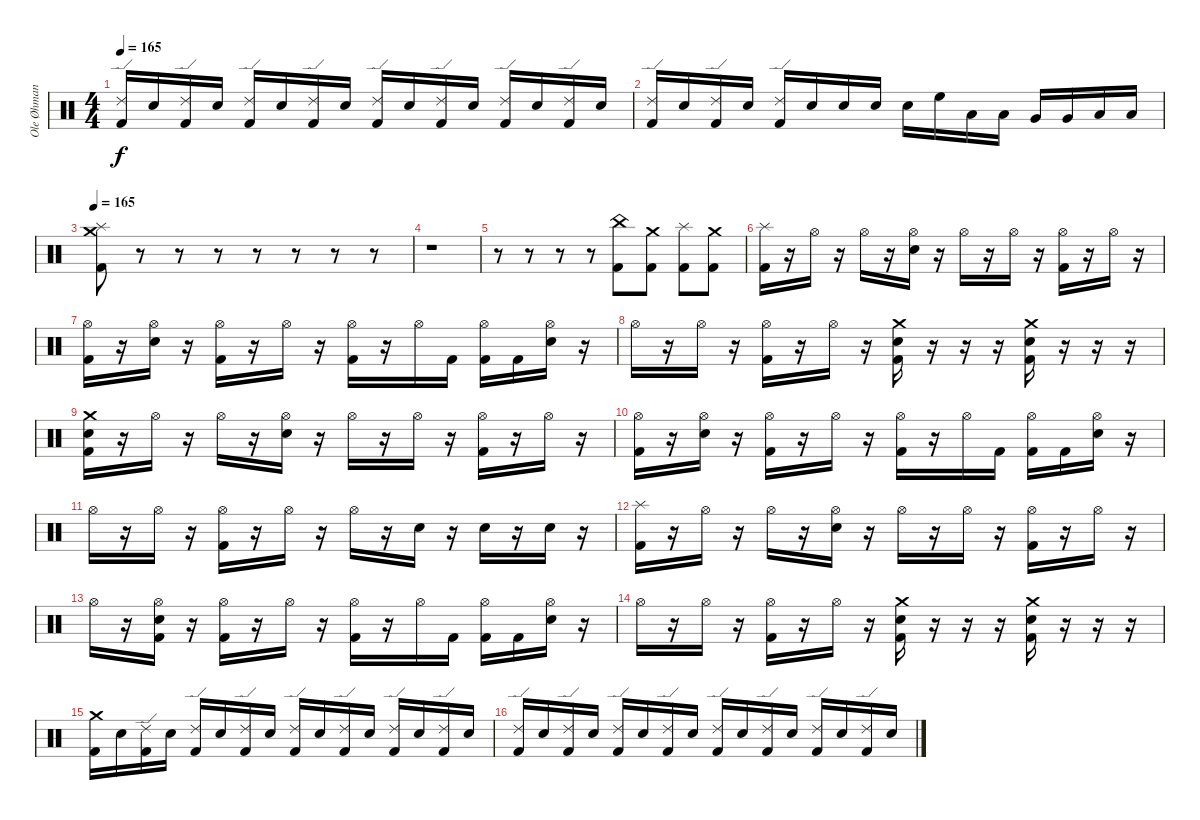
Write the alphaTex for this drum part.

\track ("Ole Øhman (Trommur)" "Ole Øhman ") {instrument percussion}
\staff {score}
\articulation defaults
\ts (4 4)
\tempo 165
\clef neutral
\ks c
("Ride (edge) 2" "Kick (hit) 2").16{dy f} "Electric Snare (hit)".16 ("Ride (edge) 2" "Kick (hit) 2").16 "Electric Snare (hit)".16 ("Ride (edge) 2" "Kick (hit) 2").16 "Electric Snare (hit)".16 ("Ride (edge) 2" "Kick (hit) 2").16 "Electric Snare (hit)".16 ("Ride (edge) 2" "Kick (hit) 2").16 "Electric Snare (hit)".16 ("Ride (edge) 2" "Kick (hit) 2").16 "Electric Snare (hit)".16 ("Ride (edge) 2" "Kick (hit) 2").16 "Electric Snare (hit)".16 ("Ride (edge) 2" "Kick (hit) 2").16 "Electric Snare (hit)".16 |
("Ride (edge) 2" "Kick (hit) 2").16 "Electric Snare (hit)".16 ("Ride (edge) 2" "Kick (hit) 2").16 "Electric Snare (hit)".16 ("Ride (edge) 2" "Kick (hit) 2").16 "Electric Snare (hit)".16 "Electric Snare (hit)".16 "Electric Snare (hit)".16 "Electric Snare (hit)".16 "High Floor Tom (hit)".16 "Low Tom (hit)".16 "Low Tom (hit)".16 "Very Low Tom (hit)".16 "Very Low Tom (hit)".16 "Low Floor Tom (hit)".16 "Low Floor Tom (hit)".16 |
\tempo 165
("Crash medium (hit)" "Splash (hit)" "Kick (hit) 2").8 r.8 r.8 r.8 r.8 r.8 r.8 r.8 |
r.1 |
r.8 r.8 r.8 r.8 ("China (hit)" "Kick (hit) 2").8 ("Crash medium (hit)" "Kick (hit) 2").8 ("Splash (hit)" "Kick (hit) 2").8 ("Crash medium (hit)" "Kick (hit) 2").8 |
("Splash (hit)" "Kick (hit) 2").16 r.16 "Hi-Hat (open)".16 r.16 "Hi-Hat (open)".16 r.16 ("Hi-Hat (open)" "Electric Snare (hit)").16 r.16 "Hi-Hat (open)".16 r.16 "Hi-Hat (open)".16 r.16 ("Hi-Hat (open)" "Kick (hit) 2").16 r.16 "Hi-Hat (open)".16 r.16 |
("Hi-Hat (open)" "Kick (hit) 2").16 r.16 ("Hi-Hat (open)" "Electric Snare (hit)").16 r.16 ("Hi-Hat (open)" "Kick (hit) 2").16 r.16 "Hi-Hat (open)".16 r.16 ("Hi-Hat (open)" "Kick (hit) 2").16 r.16 "Hi-Hat (open)".16 "Kick (hit) 2".16 ("Hi-Hat (open)" "Kick (hit) 2").16 "Kick (hit) 2".16 ("Hi-Hat (open)" "Electric Snare (hit)").16 r.16 |
"Hi-Hat (open)".16 r.16 "Hi-Hat (open)".16 r.16 ("Hi-Hat (open)" "Kick (hit) 2").16 r.16 "Hi-Hat (open)".16 r.16 ("Crash medium (hit)" "Electric Snare (hit)" "Kick (hit) 2").16 r.16 r.16 r.16 ("Crash medium (hit)" "Electric Snare (hit)" "Kick (hit) 2").16 r.16 r.16 r.16 |
("Crash medium (hit)" "Electric Snare (hit)" "Kick (hit) 2").16 r.16 "Hi-Hat (open)".16 r.16 "Hi-Hat (open)".16 r.16 ("Hi-Hat (open)" "Electric Snare (hit)").16 r.16 "Hi-Hat (open)".16 r.16 "Hi-Hat (open)".16 r.16 ("Hi-Hat (open)" "Kick (hit) 2").16 r.16 "Hi-Hat (open)".16 r.16 |
("Hi-Hat (open)" "Kick (hit) 2").16 r.16 ("Hi-Hat (open)" "Electric Snare (hit)").16 r.16 ("Hi-Hat (open)" "Kick (hit) 2").16 r.16 "Hi-Hat (open)".16 r.16 ("Hi-Hat (open)" "Kick (hit) 2").16 r.16 "Hi-Hat (open)".16 "Kick (hit) 2".16 ("Hi-Hat (open)" "Kick (hit) 2").16 "Kick (hit) 2".16 ("Hi-Hat (open)" "Electric Snare (hit)").16 r.16 |
"Hi-Hat (open)".16 r.16 "Hi-Hat (open)".16 r.16 ("Hi-Hat (open)" "Kick (hit) 2").16 r.16 "Hi-Hat (open)".16 r.16 "Hi-Hat (open)".16 r.16 "Electric Snare (hit)".16 r.16 "Electric Snare (hit)".16 r.16 "Electric Snare (hit)".16 r.16 |
("Splash (hit)" "Kick (hit) 2").16 r.16 "Hi-Hat (open)".16 r.16 "Hi-Hat (open)".16 r.16 ("Hi-Hat (open)" "Electric Snare (hit)").16 r.16 "Hi-Hat (open)".16 r.16 "Hi-Hat (open)".16 r.16 ("Hi-Hat (open)" "Kick (hit) 2").16 r.16 "Hi-Hat (open)".16 r.16 |
"Hi-Hat (open)".16 r.16 ("Hi-Hat (open)" "Electric Snare (hit)" "Kick (hit) 2").16 r.16 ("Hi-Hat (open)" "Kick (hit) 2").16 r.16 "Hi-Hat (open)".16 r.16 ("Hi-Hat (open)" "Kick (hit) 2").16 r.16 "Hi-Hat (open)".16 "Kick (hit) 2".16 ("Hi-Hat (open)" "Kick (hit) 2").16 "Kick (hit) 2".16 ("Hi-Hat (open)" "Electric Snare (hit)").16 r.16 |
"Hi-Hat (open)".16 r.16 "Hi-Hat (open)".16 r.16 ("Hi-Hat (open)" "Kick (hit) 2").16 r.16 "Hi-Hat (open)".16 r.16 ("Crash medium (hit)" "Electric Snare (hit)" "Kick (hit) 2").16 r.16 r.16 r.16 ("Crash medium (hit)" "Electric Snare (hit)" "Kick (hit) 2").16 r.16 r.16 r.16 |
("Crash medium (hit)" "Kick (hit) 2").16 "Electric Snare (hit)".16 ("Ride (edge) 2" "Kick (hit) 2").16 "Electric Snare (hit)".16 ("Ride (edge) 2" "Kick (hit) 2").16 "Electric Snare (hit)".16 ("Ride (edge) 2" "Kick (hit) 2").16 "Electric Snare (hit)".16 ("Ride (edge) 2" "Kick (hit) 2").16 "Electric Snare (hit)".16 ("Ride (edge) 2" "Kick (hit) 2").16 "Electric Snare (hit)".16 ("Ride (edge) 2" "Kick (hit) 2").16 "Electric Snare (hit)".16 ("Ride (edge) 2" "Kick (hit) 2").16 "Electric Snare (hit)".16 |
("Ride (edge) 2" "Kick (hit) 2").16 "Electric Snare (hit)".16 ("Ride (edge) 2" "Kick (hit) 2").16 "Electric Snare (hit)".16 ("Ride (edge) 2" "Kick (hit) 2").16 "Electric Snare (hit)".16 ("Ride (edge) 2" "Kick (hit) 2").16 "Electric Snare (hit)".16 ("Ride (edge) 2" "Kick (hit) 2").16 "Electric Snare (hit)".16 ("Ride (edge) 2" "Kick (hit) 2").16 "Electric Snare (hit)".16 ("Ride (edge) 2" "Kick (hit) 2").16 "Electric Snare (hit)".16 ("Ride (edge) 2" "Kick (hit) 2").16 "Electric Snare (hit)".16
